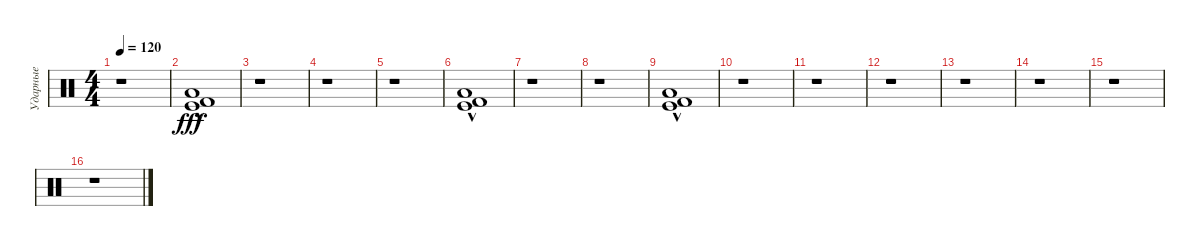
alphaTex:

\track ("Ударные" "Ударные") {instrument percussion}
\staff {score}
\articulation defaults
\ts (4 4)
\tempo 120
\clef neutral
\ks c
r.1{dy fff} |
("Kick (hit)"{hac} "Kick (hit) 2"{hac} "Low Floor Tom (hit)"{hac}).1 |
r.1 |
r.1 |
r.1 |
("Kick (hit)"{hac} "Kick (hit) 2"{hac} "Low Floor Tom (hit)"{hac}).1 |
r.1 |
r.1 |
("Kick (hit)"{hac} "Kick (hit) 2"{hac} "Low Floor Tom (hit)"{hac}).1 |
r.1 |
r.1 |
r.1 |
r.1 |
r.1 |
r.1 |
r.1
